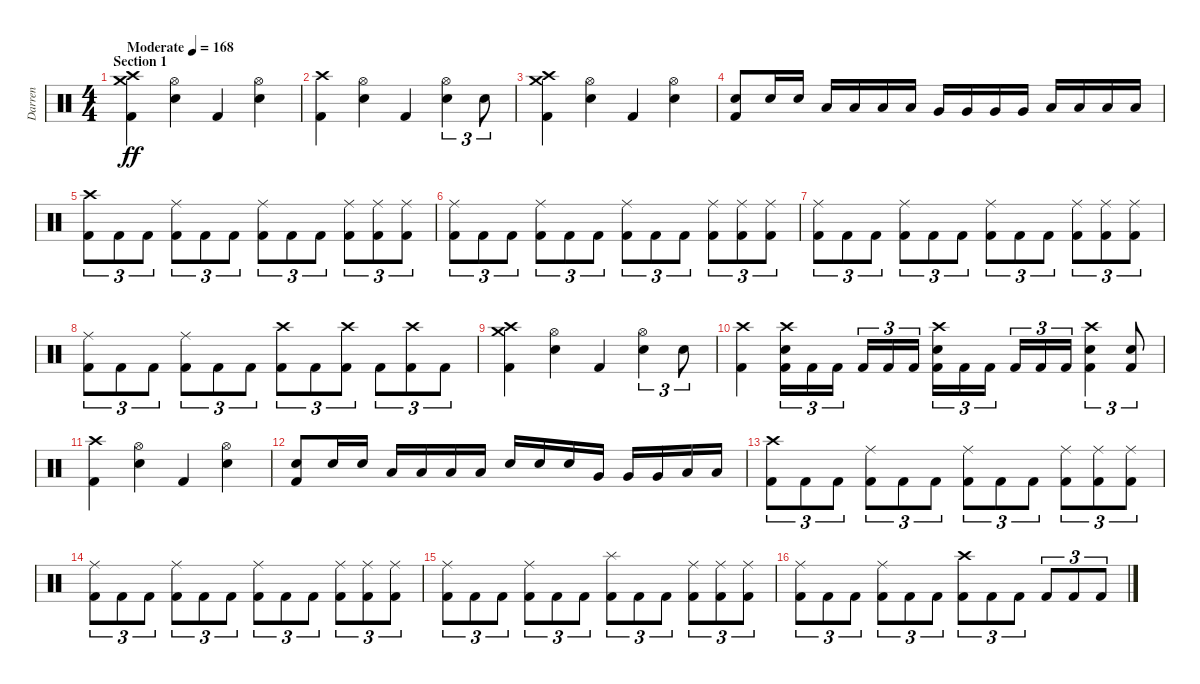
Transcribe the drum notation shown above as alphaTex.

\track ("Darren" "Darren") {instrument percussion}
\staff {score}
\articulation defaults
\ts (4 4)
\section ("" "Section 1")
\tempo (168 "Moderate")
\clef neutral
\ks c
("Crash medium (hit)" "Crash high (hit)" "Kick (hit) 2").4{dy ff} ("Hi-Hat (open)" "Electric Snare (hit)").4 "Kick (hit) 2".4 ("Hi-Hat (open)" "Electric Snare (hit)").4 |
("Crash high (hit)" "Kick (hit) 2").4 ("Hi-Hat (open)" "Electric Snare (hit)").4 "Kick (hit) 2".4 ("Hi-Hat (open)" "Electric Snare (hit)").4{tu (3 2)} "Electric Snare (hit)".8{tu (3 2)} |
("Crash medium (hit)" "Crash high (hit)" "Kick (hit) 2").4 ("Hi-Hat (open)" "Electric Snare (hit)").4 "Kick (hit) 2".4 ("Hi-Hat (open)" "Electric Snare (hit)").4 |
("Electric Snare (hit)" "Kick (hit) 2").8 "Electric Snare (hit)".16 "Electric Snare (hit)".16 "Low Tom (hit)".16 "Low Tom (hit)".16 "Low Tom (hit)".16 "Low Tom (hit)".16 "Very Low Tom (hit)".16 "Very Low Tom (hit)".16 "Very Low Tom (hit)".16 "Very Low Tom (hit)".16 "Low Floor Tom (hit)".16 "Low Floor Tom (hit)".16 "Low Floor Tom (hit)".16 "Low Floor Tom (hit)".16 |
("Crash high (hit)" "Kick (hit) 2").8{tu (3 2)} "Kick (hit) 2".8{tu (3 2)} "Kick (hit) 2".8{tu (3 2)} ("Ride (middle)" "Kick (hit) 2").8{tu (3 2)} "Kick (hit) 2".8{tu (3 2)} "Kick (hit) 2".8{tu (3 2)} ("Ride (middle)" "Kick (hit) 2").8{tu (3 2)} "Kick (hit) 2".8{tu (3 2)} "Kick (hit) 2".8{tu (3 2)} ("Ride (middle)" "Kick (hit) 2").8{tu (3 2)} ("Ride (middle)" "Kick (hit) 2").8{tu (3 2)} ("Ride (middle)" "Kick (hit) 2").8{tu (3 2)} |
("Ride (middle)" "Kick (hit) 2").8{tu (3 2)} "Kick (hit) 2".8{tu (3 2)} "Kick (hit) 2".8{tu (3 2)} ("Ride (middle)" "Kick (hit) 2").8{tu (3 2)} "Kick (hit) 2".8{tu (3 2)} "Kick (hit) 2".8{tu (3 2)} ("Ride (middle)" "Kick (hit) 2").8{tu (3 2)} "Kick (hit) 2".8{tu (3 2)} "Kick (hit) 2".8{tu (3 2)} ("Ride (middle)" "Kick (hit) 2").8{tu (3 2)} ("Ride (middle)" "Kick (hit) 2").8{tu (3 2)} ("Ride (middle)" "Kick (hit) 2").8{tu (3 2)} |
("Ride (middle)" "Kick (hit) 2").8{tu (3 2)} "Kick (hit) 2".8{tu (3 2)} "Kick (hit) 2".8{tu (3 2)} ("Ride (middle)" "Kick (hit) 2").8{tu (3 2)} "Kick (hit) 2".8{tu (3 2)} "Kick (hit) 2".8{tu (3 2)} ("Ride (middle)" "Kick (hit) 2").8{tu (3 2)} "Kick (hit) 2".8{tu (3 2)} "Kick (hit) 2".8{tu (3 2)} ("Ride (middle)" "Kick (hit) 2").8{tu (3 2)} ("Ride (middle)" "Kick (hit) 2").8{tu (3 2)} ("Ride (middle)" "Kick (hit) 2").8{tu (3 2)} |
("Ride (middle)" "Kick (hit) 2").8{tu (3 2)} "Kick (hit) 2".8{tu (3 2)} "Kick (hit) 2".8{tu (3 2)} ("Ride (middle)" "Kick (hit) 2").8{tu (3 2)} "Kick (hit) 2".8{tu (3 2)} "Kick (hit) 2".8{tu (3 2)} ("Crash high (hit)" "Kick (hit) 2").8{tu (3 2)} "Kick (hit) 2".8{tu (3 2)} ("Crash high (hit)" "Kick (hit) 2").8{tu (3 2)} "Kick (hit) 2".8{tu (3 2)} ("Crash high (hit)" "Kick (hit) 2").8{tu (3 2)} "Kick (hit) 2".8{tu (3 2)} |
("Crash medium (hit)" "Crash high (hit)" "Kick (hit) 2").4 ("Hi-Hat (open)" "Electric Snare (hit)").4 "Kick (hit) 2".4 ("Hi-Hat (open)" "Electric Snare (hit)").4{tu (3 2)} "Electric Snare (hit)".8{tu (3 2)} |
("Crash high (hit)" "Kick (hit) 2").4 ("Crash high (hit)" "Electric Snare (hit)" "Kick (hit) 2").16{tu (3 2)} "Kick (hit) 2".16{tu (3 2)} "Kick (hit) 2".16{tu (3 2) beam splitsecondary} "Kick (hit) 2".16{tu (3 2)} "Kick (hit) 2".16{tu (3 2)} "Kick (hit) 2".16{tu (3 2)} ("Crash high (hit)" "Electric Snare (hit)" "Kick (hit) 2").16{tu (3 2)} "Kick (hit) 2".16{tu (3 2)} "Kick (hit) 2".16{tu (3 2) beam splitsecondary} "Kick (hit) 2".16{tu (3 2)} "Kick (hit) 2".16{tu (3 2)} "Kick (hit) 2".16{tu (3 2)} ("Crash high (hit)" "Electric Snare (hit)" "Kick (hit) 2").4{tu (3 2)} ("Electric Snare (hit)" "Kick (hit) 2").8{tu (3 2)} |
("Crash high (hit)" "Kick (hit) 2").4 ("Hi-Hat (open)" "Electric Snare (hit)").4 "Kick (hit) 2".4 ("Hi-Hat (open)" "Electric Snare (hit)").4 |
("Electric Snare (hit)" "Kick (hit) 2").8 "Electric Snare (hit)".16 "Electric Snare (hit)".16 "Low Tom (hit)".16 "Low Tom (hit)".16 "Low Tom (hit)".16 "Low Tom (hit)".16 "Electric Snare (hit)".16 "Electric Snare (hit)".16 "Electric Snare (hit)".16 "Very Low Tom (hit)".16 "Very Low Tom (hit)".16 "Very Low Tom (hit)".16 "Low Floor Tom (hit)".16 "Low Floor Tom (hit)".16 |
("Crash high (hit)" "Kick (hit) 2").8{tu (3 2)} "Kick (hit) 2".8{tu (3 2)} "Kick (hit) 2".8{tu (3 2)} ("Ride (middle)" "Kick (hit) 2").8{tu (3 2)} "Kick (hit) 2".8{tu (3 2)} "Kick (hit) 2".8{tu (3 2)} ("Ride (middle)" "Kick (hit) 2").8{tu (3 2)} "Kick (hit) 2".8{tu (3 2)} "Kick (hit) 2".8{tu (3 2)} ("Ride (middle)" "Kick (hit) 2").8{tu (3 2)} ("Ride (middle)" "Kick (hit) 2").8{tu (3 2)} ("Ride (middle)" "Kick (hit) 2").8{tu (3 2)} |
("Ride (middle)" "Kick (hit) 2").8{tu (3 2)} "Kick (hit) 2".8{tu (3 2)} "Kick (hit) 2".8{tu (3 2)} ("Ride (middle)" "Kick (hit) 2").8{tu (3 2)} "Kick (hit) 2".8{tu (3 2)} "Kick (hit) 2".8{tu (3 2)} ("Ride (middle)" "Kick (hit) 2").8{tu (3 2)} "Kick (hit) 2".8{tu (3 2)} "Kick (hit) 2".8{tu (3 2)} ("Ride (middle)" "Kick (hit) 2").8{tu (3 2)} ("Ride (middle)" "Kick (hit) 2").8{tu (3 2)} ("Ride (middle)" "Kick (hit) 2").8{tu (3 2)} |
("Ride (middle)" "Kick (hit) 2").8{tu (3 2)} "Kick (hit) 2".8{tu (3 2)} "Kick (hit) 2".8{tu (3 2)} ("Ride (middle)" "Kick (hit) 2").8{tu (3 2)} "Kick (hit) 2".8{tu (3 2)} "Kick (hit) 2".8{tu (3 2)} ("Splash (hit)" "Kick (hit) 2").8{tu (3 2)} "Kick (hit) 2".8{tu (3 2)} "Kick (hit) 2".8{tu (3 2)} ("Ride (middle)" "Kick (hit) 2").8{tu (3 2)} ("Ride (middle)" "Kick (hit) 2").8{tu (3 2)} ("Ride (middle)" "Kick (hit) 2").8{tu (3 2)} |
("Ride (middle)" "Kick (hit) 2").8{tu (3 2)} "Kick (hit) 2".8{tu (3 2)} "Kick (hit) 2".8{tu (3 2)} ("Ride (middle)" "Kick (hit) 2").8{tu (3 2)} "Kick (hit) 2".8{tu (3 2)} "Kick (hit) 2".8{tu (3 2)} ("Crash high (hit)" "Kick (hit) 2").8{tu (3 2)} "Kick (hit) 2".8{tu (3 2)} "Kick (hit) 2".8{tu (3 2)} "Kick (hit) 2".8{tu (3 2)} "Kick (hit) 2".8{tu (3 2)} "Kick (hit) 2".8{tu (3 2)}
